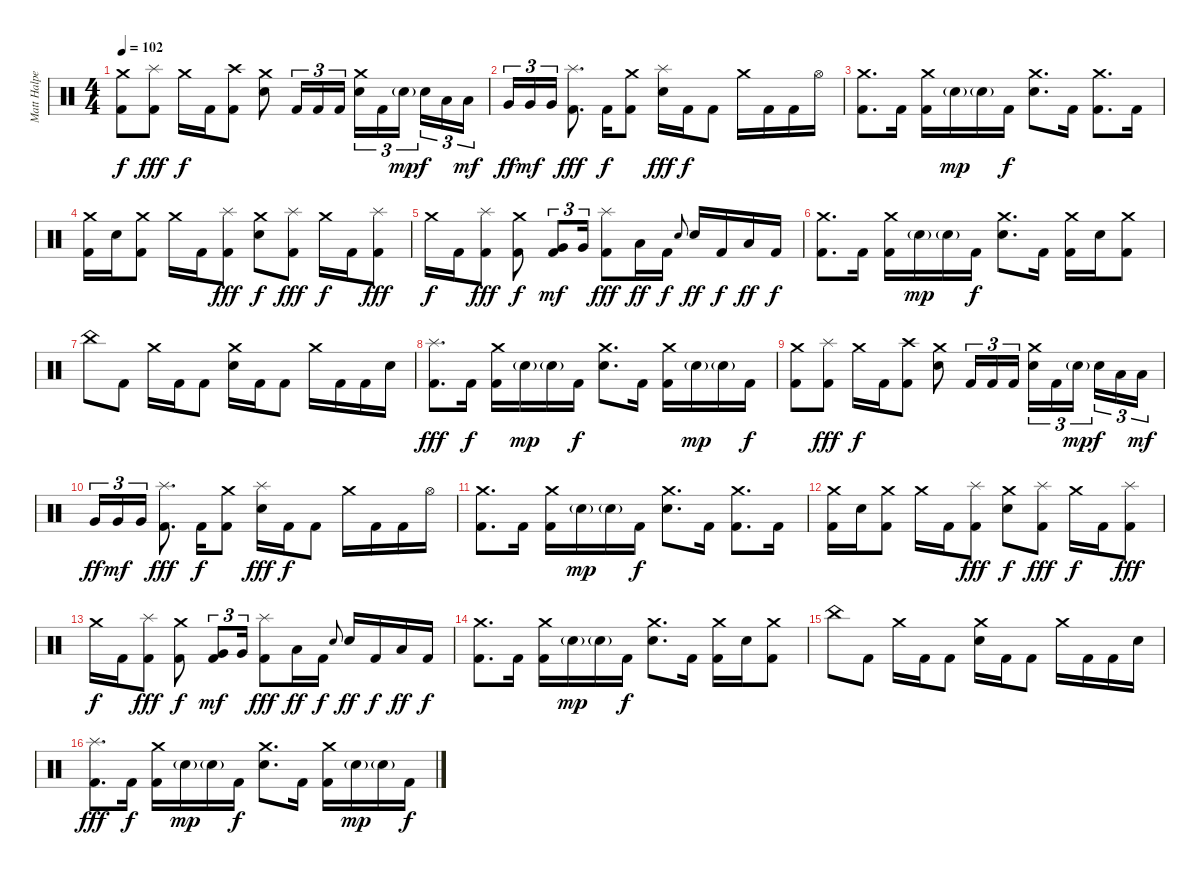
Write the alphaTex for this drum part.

\track ("Matt Halpern - Drums" "Matt Halpe") {instrument percussion}
\staff {score}
\articulation defaults
\ts (4 4)
\tempo 102
\clef neutral
\ks c
("Crash medium (hit)" "Kick (hit) 2").8{dy f} ("Splash (hit)" "Kick (hit) 2").8{dy fff} "Crash medium (hit)".16{dy f} "Kick (hit) 2".16 ("Crash high (hit)" "Kick (hit) 2").8 ("Crash medium (hit)" "Electric Snare (hit)").8 "Kick (hit) 2".16{tu (3 2)} "Kick (hit) 2".16{tu (3 2)} "Kick (hit) 2".16{tu (3 2)} ("Crash medium (hit)" "Electric Snare (hit)").16{tu (3 2)} "Kick (hit) 2".16{tu (3 2)} "Electric Snare (hit)"{g}.16{tu (3 2) dy mp beam splitsecondary} "Electric Snare (hit)".16{tu (3 2) dy f} "Low Tom (hit)".16{tu (3 2)} "Low Tom (hit)".16{tu (3 2) dy mf} |
"Very Low Tom (hit)".16{tu (3 2) dy ff} "Very Low Tom (hit)".16{tu (3 2) dy mf} "Very Low Tom (hit)".16{tu (3 2)} ("Splash (hit)" "Kick (hit) 2").8{d dy fff} "Kick (hit) 2".16{dy f} ("Crash medium (hit)" "Kick (hit) 2").8 ("Splash (hit)" "Electric Snare (hit)").16{dy fff} "Kick (hit) 2".16{dy f} "Kick (hit) 2".8 "Crash medium (hit)".16 "Kick (hit) 2".16 "Kick (hit) 2".16 "Hi-Hat (open)".16 |
("Crash medium (hit)" "Kick (hit) 2").8{d} "Kick (hit) 2".16 ("Crash medium (hit)" "Kick (hit) 2").16 "Electric Snare (hit)"{g}.16{dy mp} "Electric Snare (hit)"{g}.16 "Kick (hit) 2".16{dy f} ("Crash medium (hit)" "Electric Snare (hit)").8{d} "Kick (hit) 2".16 ("Crash medium (hit)" "Kick (hit) 2").8{d} "Kick (hit) 2".16 |
("Crash medium (hit)" "Kick (hit) 2").16 "Electric Snare (hit)".16 ("Crash medium (hit)" "Kick (hit) 2").8 "Crash medium (hit)".16 "Kick (hit) 2".16 ("Splash (hit)" "Kick (hit) 2").8{dy fff} ("Crash medium (hit)" "Electric Snare (hit)").8{dy f} ("Splash (hit)" "Kick (hit) 2").8{dy fff} "Crash medium (hit)".16{dy f} "Kick (hit) 2".16 ("Splash (hit)" "Kick (hit) 2").8{dy fff} |
"Crash medium (hit)".16{dy f} "Kick (hit) 2".16 ("Splash (hit)" "Kick (hit) 2").8{dy fff} ("Crash medium (hit)" "Kick (hit) 2").8{dy f} ("Very Low Tom (hit)" "Kick (hit) 2").8{tu (3 2) dy mf} "Very Low Tom (hit)".16{tu (3 2)} ("Splash (hit)" "Kick (hit) 2").8{dy fff} "Low Floor Tom (hit)".16{dy ff} "Kick (hit) 2".16{dy f} "Electric Snare (hit)".8{gr onbeat} "Electric Snare (hit)".16{dy ff} "Kick (hit) 2".16{dy f} "Low Floor Tom (hit)".16{dy ff} "Kick (hit) 2".16{dy f} |
("Crash medium (hit)" "Kick (hit) 2").8{d volume 13} "Kick (hit) 2".16 ("Crash medium (hit)" "Kick (hit) 2").16 "Electric Snare (hit)"{g}.16{dy mp} "Electric Snare (hit)"{g}.16 "Kick (hit) 2".16{dy f} ("Crash medium (hit)" "Electric Snare (hit)").8{d} "Kick (hit) 2".16 ("Crash medium (hit)" "Kick (hit) 2").16 "Electric Snare (hit)".16 ("Crash medium (hit)" "Kick (hit) 2").8 |
"China (hit)".8 "Kick (hit) 2".8 "Crash medium (hit)".16 "Kick (hit) 2".16 "Kick (hit) 2".8 ("Crash medium (hit)" "Electric Snare (hit)").16 "Kick (hit) 2".16 "Kick (hit) 2".8 "Crash medium (hit)".16 "Kick (hit) 2".16 "Kick (hit) 2".16 "Electric Snare (hit)".16 |
("Splash (hit)" "Kick (hit) 2").8{d dy fff} "Kick (hit) 2".16{dy f} ("Crash medium (hit)" "Kick (hit) 2").16 "Electric Snare (hit)"{g}.16{dy mp} "Electric Snare (hit)"{g}.16 "Kick (hit) 2".16{dy f} ("Crash medium (hit)" "Electric Snare (hit)").8{d} "Kick (hit) 2".16 ("Crash medium (hit)" "Kick (hit) 2").16 "Electric Snare (hit)"{g}.16{dy mp} "Electric Snare (hit)"{g}.16 "Kick (hit) 2".16{dy f} |
("Crash medium (hit)" "Kick (hit) 2").8 ("Splash (hit)" "Kick (hit) 2").8{dy fff} "Crash medium (hit)".16{dy f} "Kick (hit) 2".16 ("Crash high (hit)" "Kick (hit) 2").8 ("Crash medium (hit)" "Electric Snare (hit)").8 "Kick (hit) 2".16{tu (3 2)} "Kick (hit) 2".16{tu (3 2)} "Kick (hit) 2".16{tu (3 2)} ("Crash medium (hit)" "Electric Snare (hit)").16{tu (3 2)} "Kick (hit) 2".16{tu (3 2)} "Electric Snare (hit)"{g}.16{tu (3 2) dy mp beam splitsecondary} "Electric Snare (hit)".16{tu (3 2) dy f} "Low Tom (hit)".16{tu (3 2)} "Low Tom (hit)".16{tu (3 2) dy mf} |
"Very Low Tom (hit)".16{tu (3 2) dy ff volume 10} "Very Low Tom (hit)".16{tu (3 2) dy mf} "Very Low Tom (hit)".16{tu (3 2)} ("Splash (hit)" "Kick (hit) 2").8{d dy fff} "Kick (hit) 2".16{dy f} ("Crash medium (hit)" "Kick (hit) 2").8 ("Splash (hit)" "Electric Snare (hit)").16{dy fff} "Kick (hit) 2".16{dy f} "Kick (hit) 2".8 "Crash medium (hit)".16 "Kick (hit) 2".16 "Kick (hit) 2".16 "Hi-Hat (open)".16 |
("Crash medium (hit)" "Kick (hit) 2").8{d} "Kick (hit) 2".16 ("Crash medium (hit)" "Kick (hit) 2").16 "Electric Snare (hit)"{g}.16{dy mp} "Electric Snare (hit)"{g}.16 "Kick (hit) 2".16{dy f} ("Crash medium (hit)" "Electric Snare (hit)").8{d} "Kick (hit) 2".16 ("Crash medium (hit)" "Kick (hit) 2").8{d} "Kick (hit) 2".16 |
("Crash medium (hit)" "Kick (hit) 2").16 "Electric Snare (hit)".16 ("Crash medium (hit)" "Kick (hit) 2").8 "Crash medium (hit)".16 "Kick (hit) 2".16 ("Splash (hit)" "Kick (hit) 2").8{dy fff} ("Crash medium (hit)" "Electric Snare (hit)").8{dy f} ("Splash (hit)" "Kick (hit) 2").8{dy fff} "Crash medium (hit)".16{dy f} "Kick (hit) 2".16 ("Splash (hit)" "Kick (hit) 2").8{dy fff} |
"Crash medium (hit)".16{dy f} "Kick (hit) 2".16 ("Splash (hit)" "Kick (hit) 2").8{dy fff} ("Crash medium (hit)" "Kick (hit) 2").8{dy f} ("Very Low Tom (hit)" "Kick (hit) 2").8{tu (3 2) dy mf} "Very Low Tom (hit)".16{tu (3 2)} ("Splash (hit)" "Kick (hit) 2").8{dy fff} "Low Floor Tom (hit)".16{dy ff} "Kick (hit) 2".16{dy f} "Electric Snare (hit)".8{gr onbeat} "Electric Snare (hit)".16{dy ff} "Kick (hit) 2".16{dy f} "Low Floor Tom (hit)".16{dy ff} "Kick (hit) 2".16{dy f} |
("Crash medium (hit)" "Kick (hit) 2").8{d volume 7} "Kick (hit) 2".16 ("Crash medium (hit)" "Kick (hit) 2").16 "Electric Snare (hit)"{g}.16{dy mp} "Electric Snare (hit)"{g}.16 "Kick (hit) 2".16{dy f} ("Crash medium (hit)" "Electric Snare (hit)").8{d} "Kick (hit) 2".16 ("Crash medium (hit)" "Kick (hit) 2").16 "Electric Snare (hit)".16 ("Crash medium (hit)" "Kick (hit) 2").8 |
"China (hit)".8 "Kick (hit) 2".8 "Crash medium (hit)".16 "Kick (hit) 2".16 "Kick (hit) 2".8 ("Crash medium (hit)" "Electric Snare (hit)").16 "Kick (hit) 2".16 "Kick (hit) 2".8 "Crash medium (hit)".16 "Kick (hit) 2".16 "Kick (hit) 2".16 "Electric Snare (hit)".16 |
("Splash (hit)" "Kick (hit) 2").8{d dy fff} "Kick (hit) 2".16{dy f} ("Crash medium (hit)" "Kick (hit) 2").16 "Electric Snare (hit)"{g}.16{dy mp} "Electric Snare (hit)"{g}.16 "Kick (hit) 2".16{dy f} ("Crash medium (hit)" "Electric Snare (hit)").8{d} "Kick (hit) 2".16 ("Crash medium (hit)" "Kick (hit) 2").16 "Electric Snare (hit)"{g}.16{dy mp} "Electric Snare (hit)"{g}.16 "Kick (hit) 2".16{dy f}
